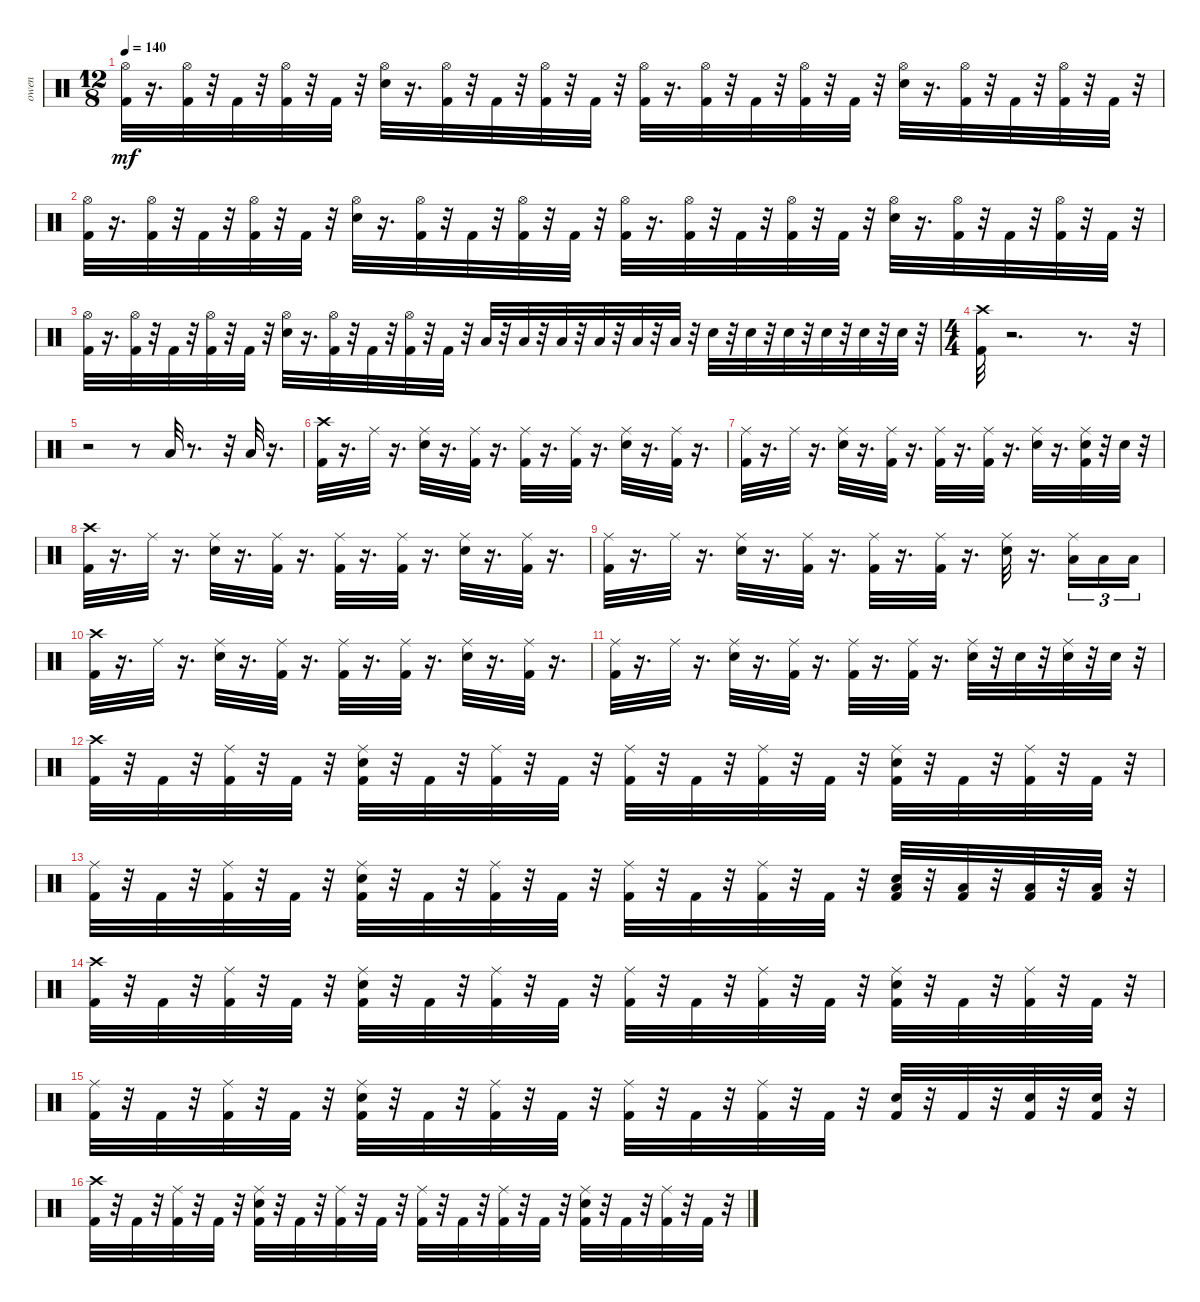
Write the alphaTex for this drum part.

\track ("owen" "owen") {instrument percussion}
\staff {score}
\articulation defaults
\ts (12 8)
\tempo 140
\clef neutral
\ks c
("Kick (hit) 2" "Hi-Hat (open)").32{dy mf} r.16{d} ("Kick (hit) 2" "Hi-Hat (open)").32 r.32 "Kick (hit) 2".32 r.32 ("Kick (hit) 2" "Hi-Hat (open)").32 r.32 "Kick (hit) 2".32 r.32 ("Snare (hit) 2" "Hi-Hat (open)").32 r.16{d} ("Kick (hit) 2" "Hi-Hat (open)").32 r.32 "Kick (hit) 2".32 r.32 ("Kick (hit) 2" "Hi-Hat (open)").32 r.32 "Kick (hit) 2".32 r.32 ("Kick (hit) 2" "Hi-Hat (open)").32 r.16{d} ("Kick (hit) 2" "Hi-Hat (open)").32 r.32 "Kick (hit) 2".32 r.32 ("Kick (hit) 2" "Hi-Hat (open)").32 r.32 "Kick (hit) 2".32 r.32 ("Snare (hit) 2" "Hi-Hat (open)").32 r.16{d} ("Kick (hit) 2" "Hi-Hat (open)").32 r.32 "Kick (hit) 2".32 r.32 ("Kick (hit) 2" "Hi-Hat (open)").32 r.32 "Kick (hit) 2".32 r.32 |
("Kick (hit) 2" "Hi-Hat (open)").32 r.16{d} ("Kick (hit) 2" "Hi-Hat (open)").32 r.32 "Kick (hit) 2".32 r.32 ("Kick (hit) 2" "Hi-Hat (open)").32 r.32 "Kick (hit) 2".32 r.32 ("Snare (hit) 2" "Hi-Hat (open)").32 r.16{d} ("Kick (hit) 2" "Hi-Hat (open)").32 r.32 "Kick (hit) 2".32 r.32 ("Kick (hit) 2" "Hi-Hat (open)").32 r.32 "Kick (hit) 2".32 r.32 ("Kick (hit) 2" "Hi-Hat (open)").32 r.16{d} ("Kick (hit) 2" "Hi-Hat (open)").32 r.32 "Kick (hit) 2".32 r.32 ("Kick (hit) 2" "Hi-Hat (open)").32 r.32 "Kick (hit) 2".32 r.32 ("Snare (hit) 2" "Hi-Hat (open)").32 r.16{d} ("Kick (hit) 2" "Hi-Hat (open)").32 r.32 "Kick (hit) 2".32 r.32 ("Kick (hit) 2" "Hi-Hat (open)").32 r.32 "Kick (hit) 2".32 r.32 |
("Kick (hit) 2" "Hi-Hat (open)").32 r.16{d} ("Kick (hit) 2" "Hi-Hat (open)").32 r.32 "Kick (hit) 2".32 r.32 ("Kick (hit) 2" "Hi-Hat (open)").32 r.32 "Kick (hit) 2".32 r.32 ("Snare (hit) 2" "Hi-Hat (open)").32 r.16{d} ("Kick (hit) 2" "Hi-Hat (open)").32 r.32 "Kick (hit) 2".32 r.32 ("Kick (hit) 2" "Hi-Hat (open)").32 r.32 "Kick (hit) 2".32 r.32 "Low Tom (hit)".32 r.32 "Low Tom (hit)".32 r.32 "Low Tom (hit)".32 r.32 "Low Tom (hit)".32 r.32 "Low Tom (hit)".32 r.32 "Low Tom (hit)".32 r.32 "Snare (hit) 2".32 r.32 "Snare (hit) 2".32 r.32 "Snare (hit) 2".32 r.32 "Snare (hit) 2".32 r.32 "Snare (hit) 2".32 r.32 "Snare (hit) 2".32 r.32 |
\ts (4 4)
("Crash high (hit)" "Kick (hit) 2").32 r.2{d} r.8{d} r.32 |
r.2 r.8 "Low Floor Tom (hit)".32 r.8{d} r.32 "Low Floor Tom (hit)".32 r.16{d} |
("Kick (hit) 2" "Crash high (hit)").32 r.16{d} "Ride (middle)".32 r.16{d} ("Ride (middle)" "Snare (hit) 2").32 r.16{d} ("Ride (middle)" "Kick (hit) 2").32 r.16{d} ("Ride (middle)" "Kick (hit) 2").32 r.16{d} ("Ride (middle)" "Kick (hit) 2").32 r.16{d} ("Ride (middle)" "Snare (hit) 2").32 r.16{d} ("Ride (middle)" "Kick (hit) 2").32 r.16{d} |
("Kick (hit) 2" "Ride (middle)").32 r.16{d} "Ride (middle)".32 r.16{d} ("Ride (middle)" "Snare (hit) 2").32 r.16{d} ("Ride (middle)" "Kick (hit) 2").32 r.16{d} ("Ride (middle)" "Kick (hit) 2").32 r.16{d} ("Ride (middle)" "Kick (hit) 2").32 r.16{d} ("Ride (middle)" "Snare (hit) 2").32 r.16{d} ("Ride (middle)" "Kick (hit) 2" "Snare (hit) 2").32 r.32 "Snare (hit) 2".32 r.32 |
("Kick (hit) 2" "Crash high (hit)").32 r.16{d} "Ride (middle)".32 r.16{d} ("Ride (middle)" "Snare (hit) 2").32 r.16{d} ("Ride (middle)" "Kick (hit) 2").32 r.16{d} ("Ride (middle)" "Kick (hit) 2").32 r.16{d} ("Ride (middle)" "Kick (hit) 2").32 r.16{d} ("Ride (middle)" "Snare (hit) 2").32 r.16{d} ("Ride (middle)" "Kick (hit) 2").32 r.16{d} |
("Kick (hit) 2" "Ride (middle)").32 r.16{d} "Ride (middle)".32 r.16{d} ("Ride (middle)" "Snare (hit) 2").32 r.16{d} ("Ride (middle)" "Kick (hit) 2").32 r.16{d} ("Ride (middle)" "Kick (hit) 2").32 r.16{d} ("Ride (middle)" "Kick (hit) 2").32 r.16{d} ("Ride (middle)" "Snare (hit) 2").32 r.16{d} ("Ride (middle)" "Low Tom (hit)").16{tu (3 2)} "Low Tom (hit)".16{tu (3 2)} "Low Tom (hit)".16{tu (3 2)} |
("Kick (hit) 2" "Crash high (hit)").32 r.16{d} "Ride (middle)".32 r.16{d} ("Ride (middle)" "Snare (hit) 2").32 r.16{d} ("Ride (middle)" "Kick (hit) 2").32 r.16{d} ("Ride (middle)" "Kick (hit) 2").32 r.16{d} ("Ride (middle)" "Kick (hit) 2").32 r.16{d} ("Ride (middle)" "Snare (hit) 2").32 r.16{d} ("Ride (middle)" "Kick (hit) 2").32 r.16{d} |
("Kick (hit) 2" "Ride (middle)").32 r.16{d} "Ride (middle)".32 r.16{d} ("Ride (middle)" "Snare (hit) 2").32 r.16{d} ("Ride (middle)" "Kick (hit) 2").32 r.16{d} ("Ride (middle)" "Kick (hit) 2").32 r.16{d} ("Ride (middle)" "Kick (hit) 2").32 r.16{d} ("Ride (middle)" "Snare (hit) 2").32 r.32 "Snare (hit) 2".32 r.32 ("Ride (middle)" "Snare (hit) 2").32 r.32 "Snare (hit) 2".32 r.32 |
("Kick (hit) 2" "Crash high (hit)").32 r.32 "Kick (hit) 2".32 r.32 ("Kick (hit) 2" "Ride (middle)").32 r.32 "Kick (hit) 2".32 r.32 ("Kick (hit) 2" "Snare (hit) 2" "Ride (middle)").32 r.32 "Kick (hit) 2".32 r.32 ("Kick (hit) 2" "Ride (middle)").32 r.32 "Kick (hit) 2".32 r.32 ("Kick (hit) 2" "Ride (middle)").32 r.32 "Kick (hit) 2".32 r.32 ("Kick (hit) 2" "Ride (middle)").32 r.32 "Kick (hit) 2".32 r.32 ("Kick (hit) 2" "Snare (hit) 2" "Ride (middle)").32 r.32 "Kick (hit) 2".32 r.32 ("Kick (hit) 2" "Ride (middle)").32 r.32 "Kick (hit) 2".32 r.32 |
("Kick (hit) 2" "Ride (middle)").32 r.32 "Kick (hit) 2".32 r.32 ("Kick (hit) 2" "Ride (middle)").32 r.32 "Kick (hit) 2".32 r.32 ("Kick (hit) 2" "Snare (hit) 2" "Ride (middle)").32 r.32 "Kick (hit) 2".32 r.32 ("Kick (hit) 2" "Ride (middle)").32 r.32 "Kick (hit) 2".32 r.32 ("Kick (hit) 2" "Ride (middle)").32 r.32 "Kick (hit) 2".32 r.32 ("Kick (hit) 2" "Ride (middle)").32 r.32 "Kick (hit) 2".32 r.32 ("Kick (hit) 2" "Snare (hit) 2" "Low Tom (hit)").32 r.32 ("Kick (hit) 2" "Low Tom (hit)").32 r.32 ("Kick (hit) 2" "Low Tom (hit)").32 r.32 ("Kick (hit) 2" "Low Tom (hit)").32 r.32 |
("Kick (hit) 2" "Crash high (hit)").32 r.32 "Kick (hit) 2".32 r.32 ("Kick (hit) 2" "Ride (middle)").32 r.32 "Kick (hit) 2".32 r.32 ("Kick (hit) 2" "Snare (hit) 2" "Ride (middle)").32 r.32 "Kick (hit) 2".32 r.32 ("Kick (hit) 2" "Ride (middle)").32 r.32 "Kick (hit) 2".32 r.32 ("Kick (hit) 2" "Ride (middle)").32 r.32 "Kick (hit) 2".32 r.32 ("Kick (hit) 2" "Ride (middle)").32 r.32 "Kick (hit) 2".32 r.32 ("Kick (hit) 2" "Snare (hit) 2" "Ride (middle)").32 r.32 "Kick (hit) 2".32 r.32 ("Kick (hit) 2" "Ride (middle)").32 r.32 "Kick (hit) 2".32 r.32 |
("Kick (hit) 2" "Ride (middle)").32 r.32 "Kick (hit) 2".32 r.32 ("Kick (hit) 2" "Ride (middle)").32 r.32 "Kick (hit) 2".32 r.32 ("Kick (hit) 2" "Snare (hit) 2" "Ride (middle)").32 r.32 "Kick (hit) 2".32 r.32 ("Kick (hit) 2" "Ride (middle)").32 r.32 "Kick (hit) 2".32 r.32 ("Kick (hit) 2" "Ride (middle)").32 r.32 "Kick (hit) 2".32 r.32 ("Kick (hit) 2" "Ride (middle)").32 r.32 "Kick (hit) 2".32 r.32 ("Kick (hit) 2" "Snare (hit) 2").32 r.32 "Kick (hit) 2".32 r.32 ("Kick (hit) 2" "Snare (hit) 2").32 r.32 ("Kick (hit) 2" "Snare (hit) 2").32 r.32 |
("Kick (hit) 2" "Crash high (hit)").32 r.32 "Kick (hit) 2".32 r.32 ("Kick (hit) 2" "Ride (middle)").32 r.32 "Kick (hit) 2".32 r.32 ("Kick (hit) 2" "Snare (hit) 2" "Ride (middle)").32 r.32 "Kick (hit) 2".32 r.32 ("Kick (hit) 2" "Ride (middle)").32 r.32 "Kick (hit) 2".32 r.32 ("Kick (hit) 2" "Ride (middle)").32 r.32 "Kick (hit) 2".32 r.32 ("Kick (hit) 2" "Ride (middle)").32 r.32 "Kick (hit) 2".32 r.32 ("Kick (hit) 2" "Snare (hit) 2" "Ride (middle)").32 r.32 "Kick (hit) 2".32 r.32 ("Kick (hit) 2" "Ride (middle)").32 r.32 "Kick (hit) 2".32 r.32
